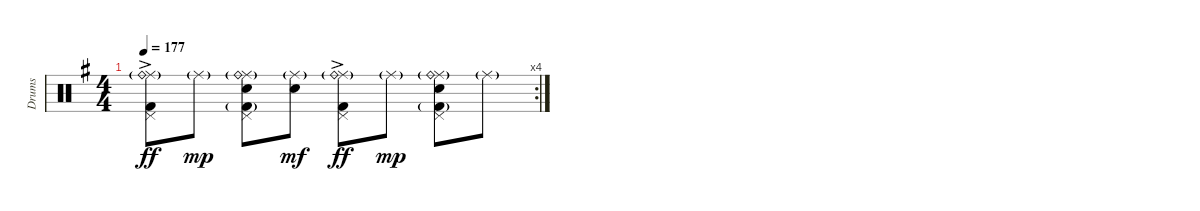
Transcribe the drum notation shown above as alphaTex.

\track ("Drums" "Drums") {instrument percussion}
\staff {score}
\articulation defaults
\rc 4
\ts (4 4)
\tempo 177
\clef neutral
\ks g
("Ride (middle)" "Ride (bell)"{g} "Pedal Hi-Hat (hit)" "Kick (hit) 2"{ac}).8{dy ff} "Ride (middle)"{g}.8{dy mp} ("Ride (middle)" "Ride (bell)"{g} "Electric Snare (hit)" "Pedal Hi-Hat (hit)" "Kick (hit) 2"{g}).8 ("Ride (middle)"{g} "Electric Snare (hit)").8{dy mf} ("Ride (middle)" "Ride (bell)"{g} "Pedal Hi-Hat (hit)" "Kick (hit) 2"{ac}).8{dy ff} "Ride (middle)"{g}.8{dy mp} ("Ride (middle)" "Ride (bell)"{g} "Electric Snare (hit)" "Pedal Hi-Hat (hit)" "Kick (hit) 2"{g}).8 "Ride (middle)"{g}.8
